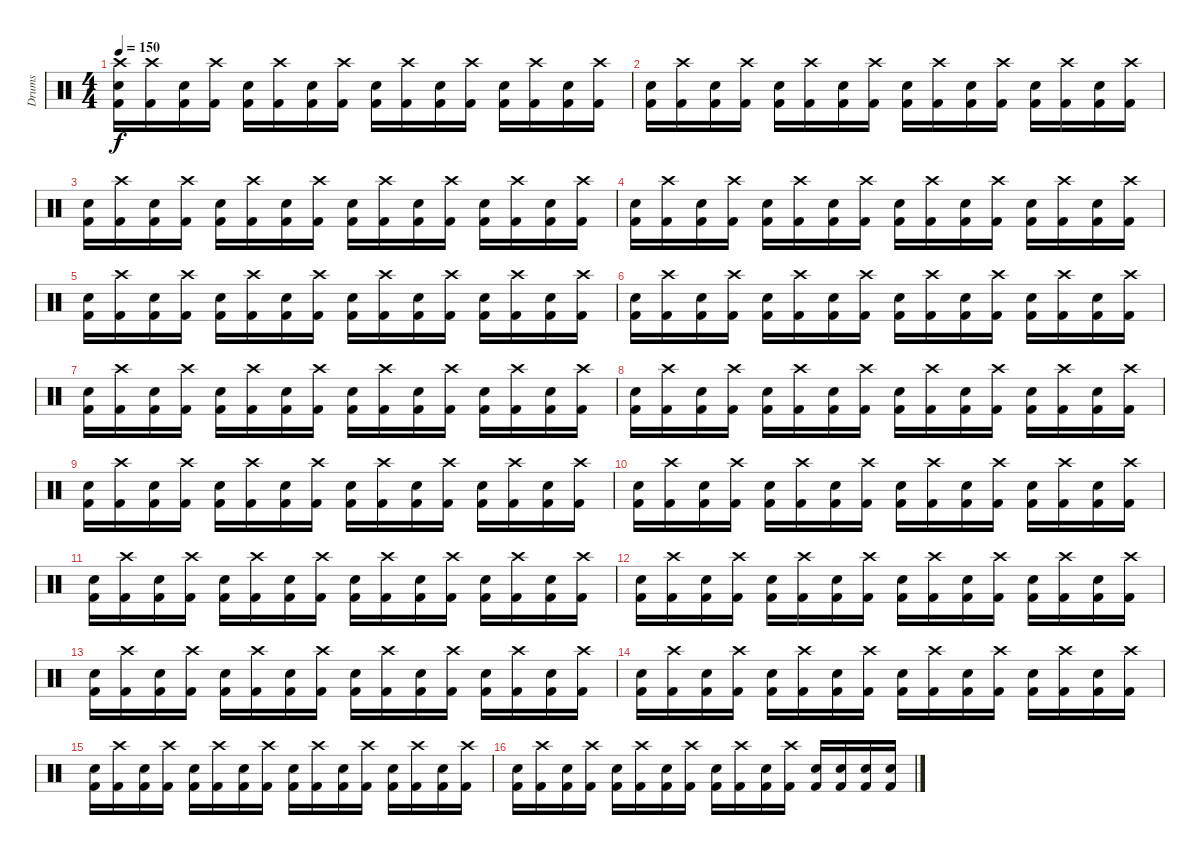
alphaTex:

\track ("Drums" "Drums") {instrument percussion}
\staff {score}
\articulation defaults
\ts (4 4)
\tempo 150
\clef neutral
\ks c
("Crash high (hit)" "Snare (hit) 2" "Kick (hit) 2").16{dy f} ("Crash high (hit)" "Kick (hit) 2").16 ("Snare (hit) 2" "Kick (hit) 2").16 ("Crash high (hit)" "Kick (hit) 2").16 ("Snare (hit) 2" "Kick (hit) 2").16 ("Crash high (hit)" "Kick (hit) 2").16 ("Snare (hit) 2" "Kick (hit) 2").16 ("Crash high (hit)" "Kick (hit) 2").16 ("Snare (hit) 2" "Kick (hit) 2").16 ("Crash high (hit)" "Kick (hit) 2").16 ("Snare (hit) 2" "Kick (hit) 2").16 ("Crash high (hit)" "Kick (hit) 2").16 ("Snare (hit) 2" "Kick (hit) 2").16 ("Crash high (hit)" "Kick (hit) 2").16 ("Snare (hit) 2" "Kick (hit) 2").16 ("Crash high (hit)" "Kick (hit) 2").16 |
("Snare (hit) 2" "Kick (hit) 2").16 ("Crash high (hit)" "Kick (hit) 2").16 ("Snare (hit) 2" "Kick (hit) 2").16 ("Crash high (hit)" "Kick (hit) 2").16 ("Snare (hit) 2" "Kick (hit) 2").16 ("Crash high (hit)" "Kick (hit) 2").16 ("Snare (hit) 2" "Kick (hit) 2").16 ("Crash high (hit)" "Kick (hit) 2").16 ("Snare (hit) 2" "Kick (hit) 2").16 ("Crash high (hit)" "Kick (hit) 2").16 ("Snare (hit) 2" "Kick (hit) 2").16 ("Crash high (hit)" "Kick (hit) 2").16 ("Snare (hit) 2" "Kick (hit) 2").16 ("Crash high (hit)" "Kick (hit) 2").16 ("Snare (hit) 2" "Kick (hit) 2").16 ("Crash high (hit)" "Kick (hit) 2").16 |
("Snare (hit) 2" "Kick (hit) 2").16 ("Crash high (hit)" "Kick (hit) 2").16 ("Snare (hit) 2" "Kick (hit) 2").16 ("Crash high (hit)" "Kick (hit) 2").16 ("Snare (hit) 2" "Kick (hit) 2").16 ("Crash high (hit)" "Kick (hit) 2").16 ("Snare (hit) 2" "Kick (hit) 2").16 ("Crash high (hit)" "Kick (hit) 2").16 ("Snare (hit) 2" "Kick (hit) 2").16 ("Crash high (hit)" "Kick (hit) 2").16 ("Snare (hit) 2" "Kick (hit) 2").16 ("Crash high (hit)" "Kick (hit) 2").16 ("Snare (hit) 2" "Kick (hit) 2").16 ("Crash high (hit)" "Kick (hit) 2").16 ("Snare (hit) 2" "Kick (hit) 2").16 ("Crash high (hit)" "Kick (hit) 2").16 |
("Snare (hit) 2" "Kick (hit) 2").16 ("Crash high (hit)" "Kick (hit) 2").16 ("Snare (hit) 2" "Kick (hit) 2").16 ("Crash high (hit)" "Kick (hit) 2").16 ("Snare (hit) 2" "Kick (hit) 2").16 ("Crash high (hit)" "Kick (hit) 2").16 ("Snare (hit) 2" "Kick (hit) 2").16 ("Crash high (hit)" "Kick (hit) 2").16 ("Snare (hit) 2" "Kick (hit) 2").16 ("Crash high (hit)" "Kick (hit) 2").16 ("Snare (hit) 2" "Kick (hit) 2").16 ("Crash high (hit)" "Kick (hit) 2").16 ("Snare (hit) 2" "Kick (hit) 2").16 ("Crash high (hit)" "Kick (hit) 2").16 ("Snare (hit) 2" "Kick (hit) 2").16 ("Crash high (hit)" "Kick (hit) 2").16 |
("Snare (hit) 2" "Kick (hit) 2").16 ("Crash high (hit)" "Kick (hit) 2").16 ("Snare (hit) 2" "Kick (hit) 2").16 ("Crash high (hit)" "Kick (hit) 2").16 ("Snare (hit) 2" "Kick (hit) 2").16 ("Crash high (hit)" "Kick (hit) 2").16 ("Snare (hit) 2" "Kick (hit) 2").16 ("Crash high (hit)" "Kick (hit) 2").16 ("Snare (hit) 2" "Kick (hit) 2").16 ("Crash high (hit)" "Kick (hit) 2").16 ("Snare (hit) 2" "Kick (hit) 2").16 ("Crash high (hit)" "Kick (hit) 2").16 ("Snare (hit) 2" "Kick (hit) 2").16 ("Crash high (hit)" "Kick (hit) 2").16 ("Snare (hit) 2" "Kick (hit) 2").16 ("Crash high (hit)" "Kick (hit) 2").16 |
("Snare (hit) 2" "Kick (hit) 2").16 ("Crash high (hit)" "Kick (hit) 2").16 ("Snare (hit) 2" "Kick (hit) 2").16 ("Crash high (hit)" "Kick (hit) 2").16 ("Snare (hit) 2" "Kick (hit) 2").16 ("Crash high (hit)" "Kick (hit) 2").16 ("Snare (hit) 2" "Kick (hit) 2").16 ("Crash high (hit)" "Kick (hit) 2").16 ("Snare (hit) 2" "Kick (hit) 2").16 ("Crash high (hit)" "Kick (hit) 2").16 ("Snare (hit) 2" "Kick (hit) 2").16 ("Crash high (hit)" "Kick (hit) 2").16 ("Snare (hit) 2" "Kick (hit) 2").16 ("Crash high (hit)" "Kick (hit) 2").16 ("Snare (hit) 2" "Kick (hit) 2").16 ("Crash high (hit)" "Kick (hit) 2").16 |
("Snare (hit) 2" "Kick (hit) 2").16 ("Crash high (hit)" "Kick (hit) 2").16 ("Snare (hit) 2" "Kick (hit) 2").16 ("Crash high (hit)" "Kick (hit) 2").16 ("Snare (hit) 2" "Kick (hit) 2").16 ("Crash high (hit)" "Kick (hit) 2").16 ("Snare (hit) 2" "Kick (hit) 2").16 ("Crash high (hit)" "Kick (hit) 2").16 ("Snare (hit) 2" "Kick (hit) 2").16 ("Crash high (hit)" "Kick (hit) 2").16 ("Snare (hit) 2" "Kick (hit) 2").16 ("Crash high (hit)" "Kick (hit) 2").16 ("Snare (hit) 2" "Kick (hit) 2").16 ("Crash high (hit)" "Kick (hit) 2").16 ("Snare (hit) 2" "Kick (hit) 2").16 ("Crash high (hit)" "Kick (hit) 2").16 |
("Snare (hit) 2" "Kick (hit) 2").16 ("Crash high (hit)" "Kick (hit) 2").16 ("Snare (hit) 2" "Kick (hit) 2").16 ("Crash high (hit)" "Kick (hit) 2").16 ("Snare (hit) 2" "Kick (hit) 2").16 ("Crash high (hit)" "Kick (hit) 2").16 ("Snare (hit) 2" "Kick (hit) 2").16 ("Crash high (hit)" "Kick (hit) 2").16 ("Snare (hit) 2" "Kick (hit) 2").16 ("Crash high (hit)" "Kick (hit) 2").16 ("Snare (hit) 2" "Kick (hit) 2").16 ("Crash high (hit)" "Kick (hit) 2").16 ("Snare (hit) 2" "Kick (hit) 2").16 ("Crash high (hit)" "Kick (hit) 2").16 ("Snare (hit) 2" "Kick (hit) 2").16 ("Crash high (hit)" "Kick (hit) 2").16 |
("Snare (hit) 2" "Kick (hit) 2").16 ("Crash high (hit)" "Kick (hit) 2").16 ("Snare (hit) 2" "Kick (hit) 2").16 ("Crash high (hit)" "Kick (hit) 2").16 ("Snare (hit) 2" "Kick (hit) 2").16 ("Crash high (hit)" "Kick (hit) 2").16 ("Snare (hit) 2" "Kick (hit) 2").16 ("Crash high (hit)" "Kick (hit) 2").16 ("Snare (hit) 2" "Kick (hit) 2").16 ("Crash high (hit)" "Kick (hit) 2").16 ("Snare (hit) 2" "Kick (hit) 2").16 ("Crash high (hit)" "Kick (hit) 2").16 ("Snare (hit) 2" "Kick (hit) 2").16 ("Crash high (hit)" "Kick (hit) 2").16 ("Snare (hit) 2" "Kick (hit) 2").16 ("Crash high (hit)" "Kick (hit) 2").16 |
("Snare (hit) 2" "Kick (hit) 2").16 ("Crash high (hit)" "Kick (hit) 2").16 ("Snare (hit) 2" "Kick (hit) 2").16 ("Crash high (hit)" "Kick (hit) 2").16 ("Snare (hit) 2" "Kick (hit) 2").16 ("Crash high (hit)" "Kick (hit) 2").16 ("Snare (hit) 2" "Kick (hit) 2").16 ("Crash high (hit)" "Kick (hit) 2").16 ("Snare (hit) 2" "Kick (hit) 2").16 ("Crash high (hit)" "Kick (hit) 2").16 ("Snare (hit) 2" "Kick (hit) 2").16 ("Crash high (hit)" "Kick (hit) 2").16 ("Snare (hit) 2" "Kick (hit) 2").16 ("Crash high (hit)" "Kick (hit) 2").16 ("Snare (hit) 2" "Kick (hit) 2").16 ("Crash high (hit)" "Kick (hit) 2").16 |
("Snare (hit) 2" "Kick (hit) 2").16 ("Crash high (hit)" "Kick (hit) 2").16 ("Snare (hit) 2" "Kick (hit) 2").16 ("Crash high (hit)" "Kick (hit) 2").16 ("Snare (hit) 2" "Kick (hit) 2").16 ("Crash high (hit)" "Kick (hit) 2").16 ("Snare (hit) 2" "Kick (hit) 2").16 ("Crash high (hit)" "Kick (hit) 2").16 ("Snare (hit) 2" "Kick (hit) 2").16 ("Crash high (hit)" "Kick (hit) 2").16 ("Snare (hit) 2" "Kick (hit) 2").16 ("Crash high (hit)" "Kick (hit) 2").16 ("Snare (hit) 2" "Kick (hit) 2").16 ("Crash high (hit)" "Kick (hit) 2").16 ("Snare (hit) 2" "Kick (hit) 2").16 ("Crash high (hit)" "Kick (hit) 2").16 |
("Snare (hit) 2" "Kick (hit) 2").16 ("Crash high (hit)" "Kick (hit) 2").16 ("Snare (hit) 2" "Kick (hit) 2").16 ("Crash high (hit)" "Kick (hit) 2").16 ("Snare (hit) 2" "Kick (hit) 2").16 ("Crash high (hit)" "Kick (hit) 2").16 ("Snare (hit) 2" "Kick (hit) 2").16 ("Crash high (hit)" "Kick (hit) 2").16 ("Snare (hit) 2" "Kick (hit) 2").16 ("Crash high (hit)" "Kick (hit) 2").16 ("Snare (hit) 2" "Kick (hit) 2").16 ("Crash high (hit)" "Kick (hit) 2").16 ("Snare (hit) 2" "Kick (hit) 2").16 ("Crash high (hit)" "Kick (hit) 2").16 ("Snare (hit) 2" "Kick (hit) 2").16 ("Crash high (hit)" "Kick (hit) 2").16 |
("Snare (hit) 2" "Kick (hit) 2").16 ("Crash high (hit)" "Kick (hit) 2").16 ("Snare (hit) 2" "Kick (hit) 2").16 ("Crash high (hit)" "Kick (hit) 2").16 ("Snare (hit) 2" "Kick (hit) 2").16 ("Crash high (hit)" "Kick (hit) 2").16 ("Snare (hit) 2" "Kick (hit) 2").16 ("Crash high (hit)" "Kick (hit) 2").16 ("Snare (hit) 2" "Kick (hit) 2").16 ("Crash high (hit)" "Kick (hit) 2").16 ("Snare (hit) 2" "Kick (hit) 2").16 ("Crash high (hit)" "Kick (hit) 2").16 ("Snare (hit) 2" "Kick (hit) 2").16 ("Crash high (hit)" "Kick (hit) 2").16 ("Snare (hit) 2" "Kick (hit) 2").16 ("Crash high (hit)" "Kick (hit) 2").16 |
("Snare (hit) 2" "Kick (hit) 2").16 ("Crash high (hit)" "Kick (hit) 2").16 ("Snare (hit) 2" "Kick (hit) 2").16 ("Crash high (hit)" "Kick (hit) 2").16 ("Snare (hit) 2" "Kick (hit) 2").16 ("Crash high (hit)" "Kick (hit) 2").16 ("Snare (hit) 2" "Kick (hit) 2").16 ("Crash high (hit)" "Kick (hit) 2").16 ("Snare (hit) 2" "Kick (hit) 2").16 ("Crash high (hit)" "Kick (hit) 2").16 ("Snare (hit) 2" "Kick (hit) 2").16 ("Crash high (hit)" "Kick (hit) 2").16 ("Snare (hit) 2" "Kick (hit) 2").16 ("Crash high (hit)" "Kick (hit) 2").16 ("Snare (hit) 2" "Kick (hit) 2").16 ("Crash high (hit)" "Kick (hit) 2").16 |
("Snare (hit) 2" "Kick (hit) 2").16 ("Crash high (hit)" "Kick (hit) 2").16 ("Snare (hit) 2" "Kick (hit) 2").16 ("Crash high (hit)" "Kick (hit) 2").16 ("Snare (hit) 2" "Kick (hit) 2").16 ("Crash high (hit)" "Kick (hit) 2").16 ("Snare (hit) 2" "Kick (hit) 2").16 ("Crash high (hit)" "Kick (hit) 2").16 ("Snare (hit) 2" "Kick (hit) 2").16 ("Crash high (hit)" "Kick (hit) 2").16 ("Snare (hit) 2" "Kick (hit) 2").16 ("Crash high (hit)" "Kick (hit) 2").16 ("Snare (hit) 2" "Kick (hit) 2").16 ("Crash high (hit)" "Kick (hit) 2").16 ("Snare (hit) 2" "Kick (hit) 2").16 ("Crash high (hit)" "Kick (hit) 2").16 |
("Snare (hit) 2" "Kick (hit) 2").16 ("Crash high (hit)" "Kick (hit) 2").16 ("Snare (hit) 2" "Kick (hit) 2").16 ("Crash high (hit)" "Kick (hit) 2").16 ("Snare (hit) 2" "Kick (hit) 2").16 ("Crash high (hit)" "Kick (hit) 2").16 ("Snare (hit) 2" "Kick (hit) 2").16 ("Crash high (hit)" "Kick (hit) 2").16 ("Snare (hit) 2" "Kick (hit) 2").16 ("Crash high (hit)" "Kick (hit) 2").16 ("Snare (hit) 2" "Kick (hit) 2").16 ("Crash high (hit)" "Kick (hit) 2").16 ("Snare (hit) 2" "Kick (hit) 2").16 ("Snare (hit) 2" "Kick (hit) 2").16 ("Snare (hit) 2" "Kick (hit) 2").16 ("Snare (hit) 2" "Kick (hit) 2").16
